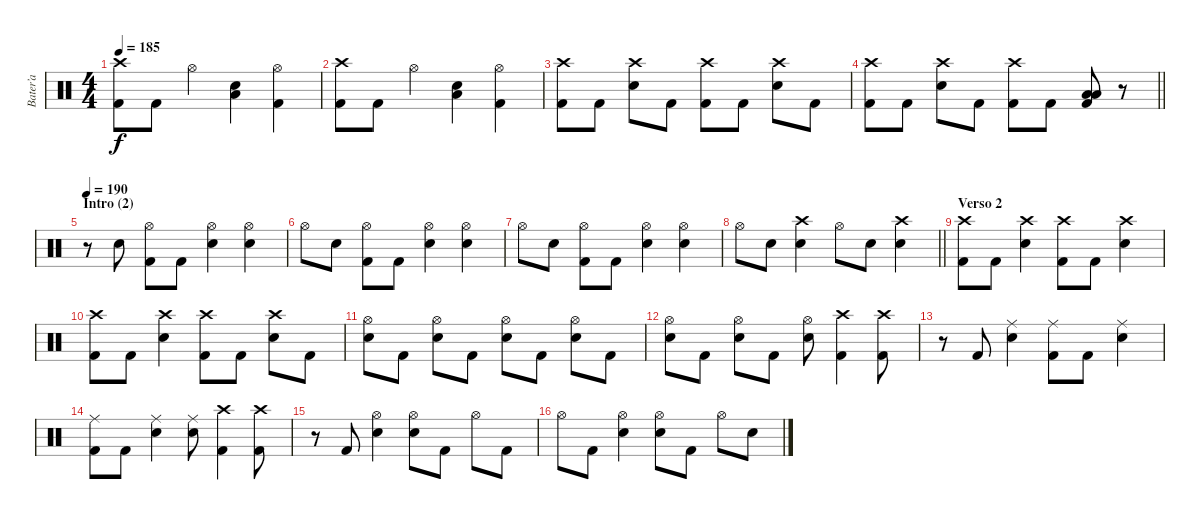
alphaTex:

\track ("Bater’a" "Bater’a") {instrument percussion}
\staff {score}
\articulation defaults
\ts (4 4)
\tempo 185
\clef neutral
\ks c
("Crash high (hit)" "Kick (hit) 2").8{dy f} "Kick (hit) 2".8 "Hi-Hat (open)".4 ("Low Floor Tom (hit)" "Electric Snare (hit)").4 ("Hi-Hat (open)" "Kick (hit) 2").4 |
("Crash high (hit)" "Kick (hit) 2").8 "Kick (hit) 2".8 "Hi-Hat (open)".4 ("Low Floor Tom (hit)" "Electric Snare (hit)").4 ("Hi-Hat (open)" "Kick (hit) 2").4 |
("Crash high (hit)" "Kick (hit) 2").8 "Kick (hit) 2".8 ("Crash high (hit)" "Electric Snare (hit)").8 "Kick (hit) 2".8 ("Crash high (hit)" "Kick (hit) 2").8 "Kick (hit) 2".8 ("Crash high (hit)" "Electric Snare (hit)").8 "Kick (hit) 2".8 |
\barLineRight lightlight
("Crash high (hit)" "Kick (hit) 2").8 "Kick (hit) 2".8 ("Crash high (hit)" "Electric Snare (hit)").8 "Kick (hit) 2".8 ("Crash high (hit)" "Kick (hit) 2").8 "Kick (hit) 2".8 ("Low Tom (hit)" "Low Floor Tom (hit)" "Kick (hit) 2").8 r.8 |
\section ("" "Intro (2)")
\tempo 190
r.8 "Electric Snare (hit)".8 ("Hi-Hat (open)" "Kick (hit) 2").8 "Kick (hit) 2".8 ("Hi-Hat (open)" "Electric Snare (hit)").4 ("Hi-Hat (open)" "Electric Snare (hit)").4 |
"Hi-Hat (open)".8 "Electric Snare (hit)".8 ("Hi-Hat (open)" "Kick (hit) 2").8 "Kick (hit) 2".8 ("Hi-Hat (open)" "Electric Snare (hit)").4 ("Hi-Hat (open)" "Electric Snare (hit)").4 |
"Hi-Hat (open)".8 "Electric Snare (hit)".8 ("Hi-Hat (open)" "Kick (hit) 2").8 "Kick (hit) 2".8 ("Hi-Hat (open)" "Electric Snare (hit)").4 ("Hi-Hat (open)" "Electric Snare (hit)").4 |
\barLineRight lightlight "Hi-Hat (open)".8 "Electric Snare (hit)".8
("Crash high (hit)" "Electric Snare (hit)").4 "Hi-Hat (open)".8 "Electric Snare (hit)".8 ("Crash high (hit)" "Electric Snare (hit)").4 |
\section ("" "Verso 2")
("Crash high (hit)" "Kick (hit) 2").8 "Kick (hit) 2".8 ("Crash high (hit)" "Electric Snare (hit)").4 ("Crash high (hit)" "Kick (hit) 2").8 "Kick (hit) 2".8 ("Crash high (hit)" "Electric Snare (hit)").4 |
("Crash high (hit)" "Kick (hit) 2").8 "Kick (hit) 2".8 ("Crash high (hit)" "Electric Snare (hit)").4 ("Crash high (hit)" "Kick (hit) 2").8 "Kick (hit) 2".8 ("Crash high (hit)" "Electric Snare (hit)").8 "Kick (hit) 2".8 |
("Hi-Hat (open)" "Electric Snare (hit)").8 "Kick (hit) 2".8 ("Hi-Hat (open)" "Electric Snare (hit)").8 "Kick (hit) 2".8 ("Hi-Hat (open)" "Electric Snare (hit)").8 "Kick (hit) 2".8 ("Hi-Hat (open)" "Electric Snare (hit)").8 "Kick (hit) 2".8 |
("Hi-Hat (open)" "Electric Snare (hit)").8 "Kick (hit) 2".8 ("Hi-Hat (open)" "Electric Snare (hit)").8 "Kick (hit) 2".8 ("Hi-Hat (open)" "Electric Snare (hit)").8 ("Crash high (hit)" "Kick (hit) 2").4 ("Crash high (hit)" "Kick (hit) 2").8 |
r.8 "Kick (hit) 2".8 ("Ride (middle)" "Electric Snare (hit)").4 ("Ride (middle)" "Kick (hit) 2").8 "Kick (hit) 2".8 ("Ride (middle)" "Electric Snare (hit)").4 |
("Ride (middle)" "Kick (hit) 2").8 "Kick (hit) 2".8 ("Ride (middle)" "Electric Snare (hit)").4 ("Ride (middle)" "Electric Snare (hit)").8 ("Crash high (hit)" "Kick (hit) 2").4 ("Crash high (hit)" "Kick (hit) 2").8 |
r.8 "Kick (hit) 2".8 ("Hi-Hat (open)" "Electric Snare (hit)").4 ("Hi-Hat (open)" "Electric Snare (hit)").8 "Kick (hit) 2".8 "Hi-Hat (open)".8 "Kick (hit) 2".8 |
"Hi-Hat (open)".8 "Kick (hit) 2".8 ("Hi-Hat (open)" "Electric Snare (hit)").4 ("Hi-Hat (open)" "Electric Snare (hit)").8 "Kick (hit) 2".8 "Hi-Hat (open)".8 "Electric Snare (hit)".8
